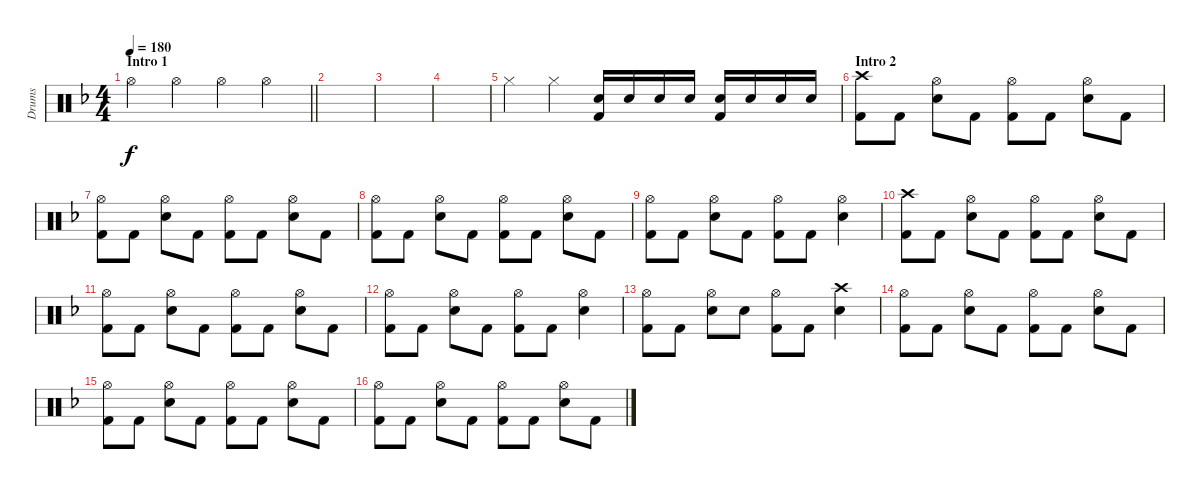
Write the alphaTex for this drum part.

\track ("Drums" "Drums") {instrument percussion}
\staff {score}
\articulation defaults
\ts (4 4)
\section ("" "Intro 1")
\tempo 180
\clef neutral
\barLineRight lightlight
\ks dminor "Hi-Hat (open)".4{dy f} "Hi-Hat (open)".4 "Hi-Hat (open)".4 "Hi-Hat (open)".4
|
|
|
|
"Hi-Hat (closed)".4 "Hi-Hat (closed)".4 ("Snare (hit) 2" "Kick (hit) 2").16 "Snare (hit) 2".16 "Snare (hit) 2".16 "Snare (hit) 2".16 ("Snare (hit) 2" "Kick (hit) 2").16 "Snare (hit) 2".16 "Snare (hit) 2".16 "Snare (hit) 2".16 |
\section ("" "Intro 2")
("Crash high (hit)" "Kick (hit) 2").8 "Kick (hit) 2".8 ("Hi-Hat (open)" "Snare (hit) 2").8 "Kick (hit) 2".8 ("Hi-Hat (open)" "Kick (hit) 2").8 "Kick (hit) 2".8 ("Hi-Hat (open)" "Snare (hit) 2").8 "Kick (hit) 2".8 |
("Hi-Hat (open)" "Kick (hit) 2").8 "Kick (hit) 2".8 ("Hi-Hat (open)" "Snare (hit) 2").8 "Kick (hit) 2".8 ("Hi-Hat (open)" "Kick (hit) 2").8 "Kick (hit) 2".8 ("Hi-Hat (open)" "Snare (hit) 2").8 "Kick (hit) 2".8 |
("Hi-Hat (open)" "Kick (hit) 2").8 "Kick (hit) 2".8 ("Hi-Hat (open)" "Snare (hit) 2").8 "Kick (hit) 2".8 ("Hi-Hat (open)" "Kick (hit) 2").8 "Kick (hit) 2".8 ("Hi-Hat (open)" "Snare (hit) 2").8 "Kick (hit) 2".8 |
("Hi-Hat (open)" "Kick (hit) 2").8 "Kick (hit) 2".8 ("Hi-Hat (open)" "Snare (hit) 2").8 "Kick (hit) 2".8 ("Hi-Hat (open)" "Kick (hit) 2").8 "Kick (hit) 2".8 ("Hi-Hat (open)" "Snare (hit) 2").4 |
("Crash high (hit)" "Kick (hit) 2").8 "Kick (hit) 2".8 ("Hi-Hat (open)" "Snare (hit) 2").8 "Kick (hit) 2".8 ("Hi-Hat (open)" "Kick (hit) 2").8 "Kick (hit) 2".8 ("Hi-Hat (open)" "Snare (hit) 2").8 "Kick (hit) 2".8 |
("Hi-Hat (open)" "Kick (hit) 2").8 "Kick (hit) 2".8 ("Hi-Hat (open)" "Snare (hit) 2").8 "Kick (hit) 2".8 ("Hi-Hat (open)" "Kick (hit) 2").8 "Kick (hit) 2".8 ("Hi-Hat (open)" "Snare (hit) 2").8 "Kick (hit) 2".8 |
("Hi-Hat (open)" "Kick (hit) 2").8 "Kick (hit) 2".8 ("Hi-Hat (open)" "Snare (hit) 2").8 "Kick (hit) 2".8 ("Hi-Hat (open)" "Kick (hit) 2").8 "Kick (hit) 2".8 ("Hi-Hat (open)" "Snare (hit) 2").4 |
("Hi-Hat (open)" "Kick (hit) 2").8 "Kick (hit) 2".8 ("Hi-Hat (open)" "Snare (hit) 2").8 "Snare (hit) 2".8 ("Hi-Hat (open)" "Kick (hit) 2").8 "Kick (hit) 2".8 ("Crash high (hit)" "Snare (hit) 2").4 |
("Hi-Hat (open)" "Kick (hit) 2").8 "Kick (hit) 2".8 ("Hi-Hat (open)" "Snare (hit) 2").8 "Kick (hit) 2".8 ("Hi-Hat (open)" "Kick (hit) 2").8 "Kick (hit) 2".8 ("Hi-Hat (open)" "Snare (hit) 2").8 "Kick (hit) 2".8 |
("Hi-Hat (open)" "Kick (hit) 2").8 "Kick (hit) 2".8 ("Hi-Hat (open)" "Snare (hit) 2").8 "Kick (hit) 2".8 ("Hi-Hat (open)" "Kick (hit) 2").8 "Kick (hit) 2".8 ("Hi-Hat (open)" "Snare (hit) 2").8 "Kick (hit) 2".8 |
("Hi-Hat (open)" "Kick (hit) 2").8 "Kick (hit) 2".8 ("Hi-Hat (open)" "Snare (hit) 2").8 "Kick (hit) 2".8 ("Hi-Hat (open)" "Kick (hit) 2").8 "Kick (hit) 2".8 ("Hi-Hat (open)" "Snare (hit) 2").8 "Kick (hit) 2".8
